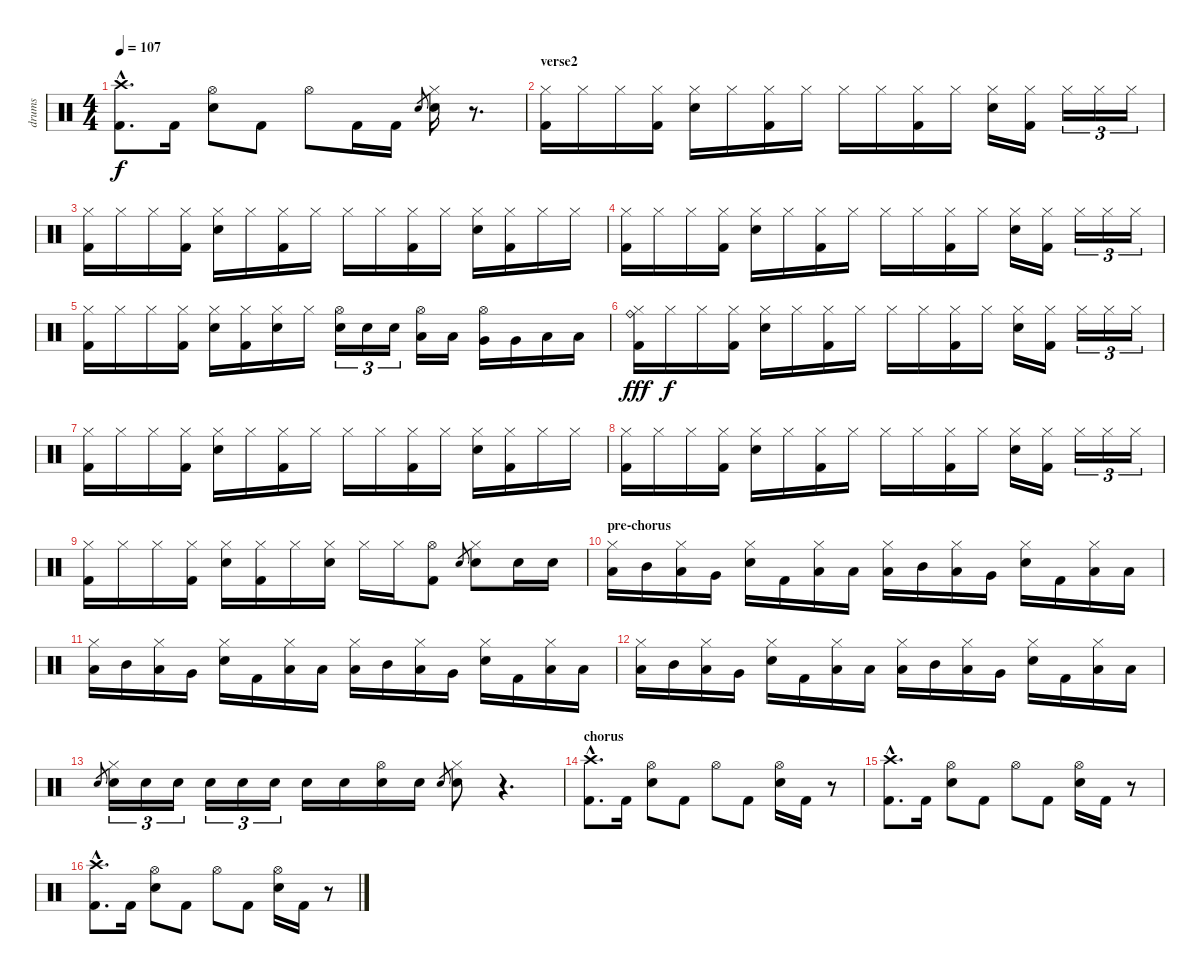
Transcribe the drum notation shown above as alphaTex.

\track ("drums" "drums") {instrument percussion}
\staff {score}
\articulation defaults
\ts (4 4)
\tempo 107
\clef neutral
\ks c
("Crash high (hit)"{hac} "Kick (hit) 2"{hac}).8{d dy f} "Kick (hit) 2".16 ("Hi-Hat (open)" "Electric Snare (hit)").8 "Kick (hit) 2".8 "Hi-Hat (open)".8 "Kick (hit) 2".16 "Kick (hit) 2".16 "Electric Snare (hit)".8{gr} ("Hi-Hat (closed)" "Electric Snare (hit)").16 r.8{d} |
\section ("" "verse2")
("Hi-Hat (closed)" "Kick (hit) 2").16 "Hi-Hat (closed)".16 "Hi-Hat (closed)".16 ("Hi-Hat (closed)" "Kick (hit) 2").16 ("Hi-Hat (closed)" "Electric Snare (hit)").16 "Hi-Hat (closed)".16 ("Hi-Hat (closed)" "Kick (hit) 2").16 "Hi-Hat (closed)".16 "Hi-Hat (closed)".16 "Hi-Hat (closed)".16 ("Hi-Hat (closed)" "Kick (hit) 2").16 "Hi-Hat (closed)".16 ("Hi-Hat (closed)" "Electric Snare (hit)").16 ("Hi-Hat (closed)" "Kick (hit) 2").16 "Hi-Hat (closed)".16{tu (3 2)} "Hi-Hat (closed)".16{tu (3 2)} "Hi-Hat (closed)".16{tu (3 2)} |
("Hi-Hat (closed)" "Kick (hit) 2").16 "Hi-Hat (closed)".16 "Hi-Hat (closed)".16 ("Hi-Hat (closed)" "Kick (hit) 2").16 ("Hi-Hat (closed)" "Electric Snare (hit)").16 "Hi-Hat (closed)".16 ("Hi-Hat (closed)" "Kick (hit) 2").16 "Hi-Hat (closed)".16 "Hi-Hat (closed)".16 "Hi-Hat (closed)".16 ("Hi-Hat (closed)" "Kick (hit) 2").16 "Hi-Hat (closed)".16 ("Hi-Hat (closed)" "Electric Snare (hit)").16 ("Hi-Hat (closed)" "Kick (hit) 2").16 "Hi-Hat (closed)".16 "Hi-Hat (closed)".16 |
("Hi-Hat (closed)" "Kick (hit) 2").16 "Hi-Hat (closed)".16 "Hi-Hat (closed)".16 ("Hi-Hat (closed)" "Kick (hit) 2").16 ("Hi-Hat (closed)" "Electric Snare (hit)").16 "Hi-Hat (closed)".16 ("Hi-Hat (closed)" "Kick (hit) 2").16 "Hi-Hat (closed)".16 "Hi-Hat (closed)".16 "Hi-Hat (closed)".16 ("Hi-Hat (closed)" "Kick (hit) 2").16 "Hi-Hat (closed)".16 ("Hi-Hat (closed)" "Electric Snare (hit)").16 ("Hi-Hat (closed)" "Kick (hit) 2").16 "Hi-Hat (closed)".16{tu (3 2)} "Hi-Hat (closed)".16{tu (3 2)} "Hi-Hat (closed)".16{tu (3 2)} |
("Hi-Hat (closed)" "Kick (hit) 2").16 "Hi-Hat (closed)".16 "Hi-Hat (closed)".16 ("Hi-Hat (closed)" "Kick (hit) 2").16 ("Hi-Hat (closed)" "Electric Snare (hit)").16 ("Hi-Hat (closed)" "Kick (hit) 2").16 ("Hi-Hat (closed)" "Electric Snare (hit)").16 "Hi-Hat (closed)".16 ("Hi-Hat (open)" "Electric Snare (hit)").16{tu (3 2)} "Electric Snare (hit)".16{tu (3 2)} "Electric Snare (hit)".16{tu (3 2)} ("Hi-Hat (open)" "Low Tom (hit)").16 "Low Tom (hit)".16 ("Hi-Hat (open)" "Very Low Tom (hit)").16 "Very Low Tom (hit)".16 "Low Floor Tom (hit)".16 "Low Floor Tom (hit)".16 |
("Ride (bell)" "Hi-Hat (closed)" "Kick (hit) 2").16{dy fff} "Hi-Hat (closed)".16{dy f} "Hi-Hat (closed)".16 ("Hi-Hat (closed)" "Kick (hit) 2").16 ("Hi-Hat (closed)" "Electric Snare (hit)").16 "Hi-Hat (closed)".16 ("Hi-Hat (closed)" "Kick (hit) 2").16 "Hi-Hat (closed)".16 "Hi-Hat (closed)".16 "Hi-Hat (closed)".16 ("Hi-Hat (closed)" "Kick (hit) 2").16 "Hi-Hat (closed)".16 ("Hi-Hat (closed)" "Electric Snare (hit)").16 ("Hi-Hat (closed)" "Kick (hit) 2").16 "Hi-Hat (closed)".16{tu (3 2)} "Hi-Hat (closed)".16{tu (3 2)} "Hi-Hat (closed)".16{tu (3 2)} |
("Hi-Hat (closed)" "Kick (hit) 2").16 "Hi-Hat (closed)".16 "Hi-Hat (closed)".16 ("Hi-Hat (closed)" "Kick (hit) 2").16 ("Hi-Hat (closed)" "Electric Snare (hit)").16 "Hi-Hat (closed)".16 ("Hi-Hat (closed)" "Kick (hit) 2").16 "Hi-Hat (closed)".16 "Hi-Hat (closed)".16 "Hi-Hat (closed)".16 ("Hi-Hat (closed)" "Kick (hit) 2").16 "Hi-Hat (closed)".16 ("Hi-Hat (closed)" "Electric Snare (hit)").16 ("Hi-Hat (closed)" "Kick (hit) 2").16 "Hi-Hat (closed)".16 "Hi-Hat (closed)".16 |
("Hi-Hat (closed)" "Kick (hit) 2").16 "Hi-Hat (closed)".16 "Hi-Hat (closed)".16 ("Hi-Hat (closed)" "Kick (hit) 2").16 ("Hi-Hat (closed)" "Electric Snare (hit)").16 "Hi-Hat (closed)".16 ("Hi-Hat (closed)" "Kick (hit) 2").16 "Hi-Hat (closed)".16 "Hi-Hat (closed)".16 "Hi-Hat (closed)".16 ("Hi-Hat (closed)" "Kick (hit) 2").16 "Hi-Hat (closed)".16 ("Hi-Hat (closed)" "Electric Snare (hit)").16 ("Hi-Hat (closed)" "Kick (hit) 2").16 "Hi-Hat (closed)".16{tu (3 2)} "Hi-Hat (closed)".16{tu (3 2)} "Hi-Hat (closed)".16{tu (3 2)} |
("Hi-Hat (closed)" "Kick (hit) 2").16 "Hi-Hat (closed)".16 "Hi-Hat (closed)".16 ("Hi-Hat (closed)" "Kick (hit) 2").16 ("Hi-Hat (closed)" "Electric Snare (hit)").16 ("Hi-Hat (closed)" "Kick (hit) 2").16 "Hi-Hat (closed)".16 ("Hi-Hat (closed)" "Electric Snare (hit)").16 "Hi-Hat (closed)".16 "Hi-Hat (closed)".16 ("Hi-Hat (open)" "Kick (hit) 2").8 "Electric Snare (hit)".8{gr} ("Hi-Hat (closed)" "Electric Snare (hit)").8 "Electric Snare (hit)".16 "Electric Snare (hit)".16 |
\section ("" "pre-chorus")
("Hi-Hat (closed)" "Low Tom (hit)").16 "Mid Tom (hit)".16 ("Hi-Hat (closed)" "Low Floor Tom (hit)").16 "Very Low Tom (hit)".16 ("Hi-Hat (closed)" "Electric Snare (hit)").16 "Kick (hit) 2".16 ("Hi-Hat (closed)" "Low Floor Tom (hit)").16 "Low Floor Tom (hit)".16 ("Hi-Hat (closed)" "Low Tom (hit)").16 "Mid Tom (hit)".16 ("Hi-Hat (closed)" "Low Floor Tom (hit)").16 "Very Low Tom (hit)".16 ("Hi-Hat (closed)" "Electric Snare (hit)").16 "Kick (hit) 2".16 ("Hi-Hat (closed)" "Low Tom (hit)").16 "Low Tom (hit)".16 |
("Hi-Hat (closed)" "Low Tom (hit)").16 "Mid Tom (hit)".16 ("Hi-Hat (closed)" "Low Floor Tom (hit)").16 "Very Low Tom (hit)".16 ("Hi-Hat (closed)" "Electric Snare (hit)").16 "Kick (hit) 2".16 ("Hi-Hat (closed)" "Low Floor Tom (hit)").16 "Low Floor Tom (hit)".16 ("Hi-Hat (closed)" "Low Tom (hit)").16 "Mid Tom (hit)".16 ("Hi-Hat (closed)" "Low Floor Tom (hit)").16 "Very Low Tom (hit)".16 ("Hi-Hat (closed)" "Electric Snare (hit)").16 "Kick (hit) 2".16 ("Hi-Hat (closed)" "Low Tom (hit)").16 "Low Tom (hit)".16 |
("Hi-Hat (closed)" "Low Tom (hit)").16 "Mid Tom (hit)".16 ("Hi-Hat (closed)" "Low Floor Tom (hit)").16 "Very Low Tom (hit)".16 ("Hi-Hat (closed)" "Electric Snare (hit)").16 "Kick (hit) 2".16 ("Hi-Hat (closed)" "Low Floor Tom (hit)").16 "Low Floor Tom (hit)".16 ("Hi-Hat (closed)" "Low Tom (hit)").16 "Mid Tom (hit)".16 ("Hi-Hat (closed)" "Low Floor Tom (hit)").16 "Very Low Tom (hit)".16 ("Hi-Hat (closed)" "Electric Snare (hit)").16 "Kick (hit) 2".16 ("Hi-Hat (closed)" "Low Tom (hit)").16 "Low Tom (hit)".16 |
"Electric Snare (hit)".8{gr} ("Hi-Hat (closed)" "Electric Snare (hit)").16{tu (3 2)} "Electric Snare (hit)".16{tu (3 2)} "Electric Snare (hit)".16{tu (3 2)} "Electric Snare (hit)".16{tu (3 2)} "Electric Snare (hit)".16{tu (3 2)} "Electric Snare (hit)".16{tu (3 2)} "Electric Snare (hit)".16 "Electric Snare (hit)".16 ("Hi-Hat (open)" "Electric Snare (hit)").16 "Electric Snare (hit)".16 "Electric Snare (hit)".8{gr} ("Hi-Hat (closed)" "Electric Snare (hit)").8 r.4{d} |
\section ("" "chorus")
("Crash high (hit)"{hac} "Kick (hit) 2"{hac}).8{d} "Kick (hit) 2".16 ("Hi-Hat (open)" "Electric Snare (hit)").8 "Kick (hit) 2".8 "Hi-Hat (open)".8 "Kick (hit) 2".8 ("Hi-Hat (open)" "Electric Snare (hit)").16 "Kick (hit) 2".16 r.8 |
("Crash high (hit)"{hac} "Kick (hit) 2"{hac}).8{d} "Kick (hit) 2".16 ("Hi-Hat (open)" "Electric Snare (hit)").8 "Kick (hit) 2".8 "Hi-Hat (open)".8 "Kick (hit) 2".8 ("Hi-Hat (open)" "Electric Snare (hit)").16 "Kick (hit) 2".16 r.8 |
("Crash high (hit)"{hac} "Kick (hit) 2"{hac}).8{d} "Kick (hit) 2".16 ("Hi-Hat (open)" "Electric Snare (hit)").8 "Kick (hit) 2".8 "Hi-Hat (open)".8 "Kick (hit) 2".8 ("Hi-Hat (open)" "Electric Snare (hit)").16 "Kick (hit) 2".16 r.8
